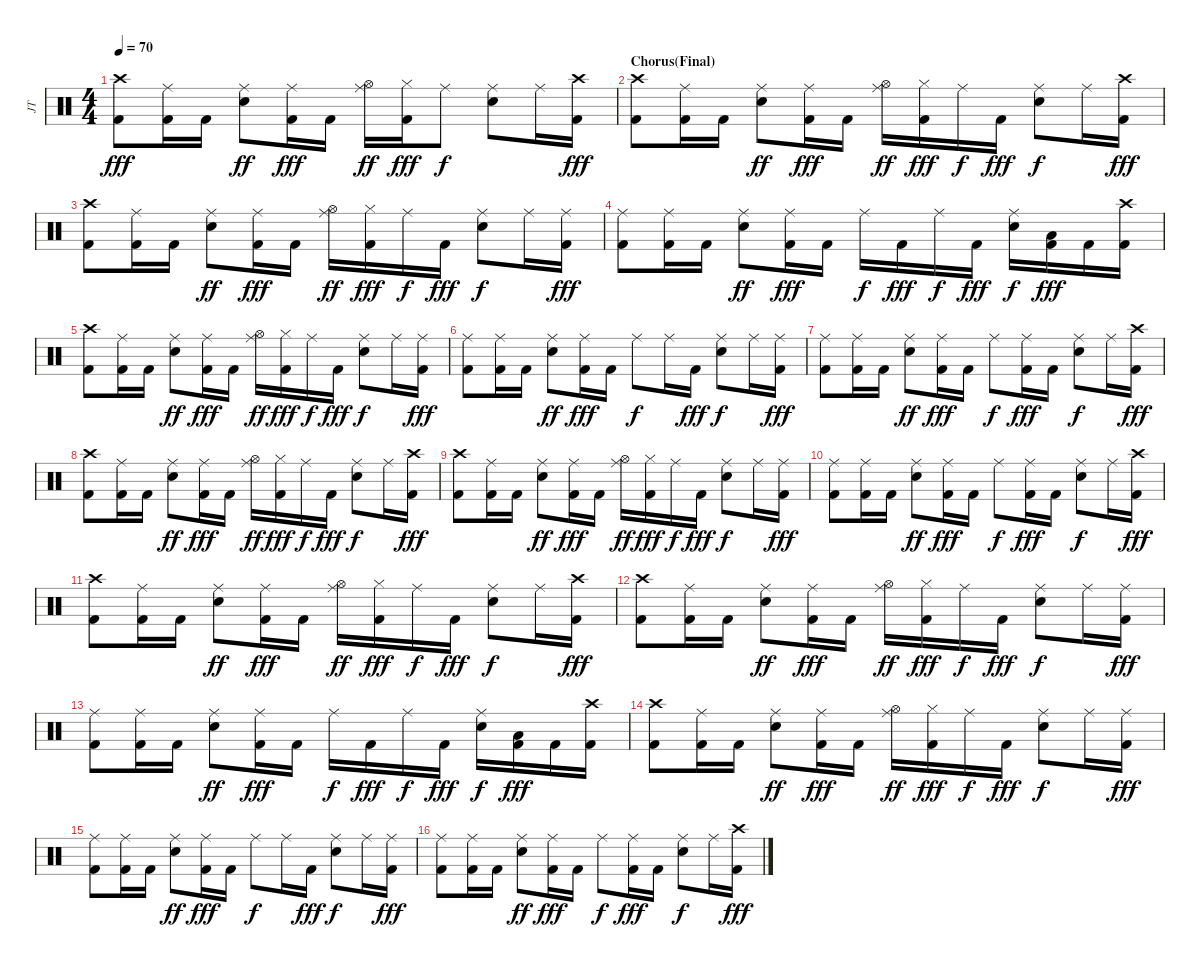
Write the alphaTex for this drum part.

\track ("JT" "JT") {instrument percussion}
\staff {score}
\articulation defaults
\ts (4 4)
\tempo 70
\clef neutral
\ks c
("Crash high (hit)" "Kick (hit) 2").8{dy fff} ("Ride (middle)" "Kick (hit) 2").16 "Kick (hit) 2".16 ("Ride (middle)" "Electric Snare (hit)").8{dy ff} ("Ride (middle)" "Kick (hit) 2").16{dy fff} "Kick (hit) 2".16 ("Ride (middle)" "Hi-Hat (open)").16{dy ff} ("Hi-Hat (closed)" "Kick (hit) 2").16{dy fff} "Ride (middle)".8{dy f} ("Ride (middle)" "Electric Snare (hit)").8 "Ride (middle)".16 ("Crash high (hit)" "Kick (hit) 2").16{dy fff} |
\section ("" "Chorus(Final)")
("Crash high (hit)" "Kick (hit) 2").8 ("Ride (middle)" "Kick (hit) 2").16 "Kick (hit) 2".16 ("Ride (middle)" "Electric Snare (hit)").8{dy ff} ("Ride (middle)" "Kick (hit) 2").16{dy fff} "Kick (hit) 2".16 ("Ride (middle)" "Hi-Hat (open)").16{dy ff} ("Hi-Hat (closed)" "Kick (hit) 2").16{dy fff} "Ride (middle)".16{dy f} "Kick (hit) 2".16{dy fff} ("Ride (middle)" "Electric Snare (hit)").8{dy f} "Ride (middle)".16 ("Crash high (hit)" "Kick (hit) 2").16{dy fff} |
("Crash high (hit)" "Kick (hit) 2").8 ("Ride (middle)" "Kick (hit) 2").16 "Kick (hit) 2".16 ("Ride (middle)" "Electric Snare (hit)").8{dy ff} ("Ride (middle)" "Kick (hit) 2").16{dy fff} "Kick (hit) 2".16 ("Ride (middle)" "Hi-Hat (open)").16{dy ff} ("Hi-Hat (closed)" "Kick (hit) 2").16{dy fff} "Ride (middle)".16{dy f} "Kick (hit) 2".16{dy fff} ("Ride (middle)" "Electric Snare (hit)").8{dy f} "Ride (middle)".16 ("Ride (middle)" "Kick (hit) 2").16{dy fff} |
("Ride (middle)" "Kick (hit) 2").8 ("Ride (middle)" "Kick (hit) 2").16 "Kick (hit) 2".16 ("Ride (middle)" "Electric Snare (hit)").8{dy ff} ("Ride (middle)" "Kick (hit) 2").16{dy fff} "Kick (hit) 2".16 "Ride (middle)".16{dy f} "Kick (hit) 2".16{dy fff} "Ride (middle)".16{dy f} "Kick (hit) 2".16{dy fff} ("Ride (middle)" "Electric Snare (hit)").16{dy f} ("Low Tom (hit)" "Kick (hit) 2").16{dy fff} "Kick (hit) 2".16 ("Crash high (hit)" "Kick (hit) 2").16 |
("Crash high (hit)" "Kick (hit) 2").8 ("Ride (middle)" "Kick (hit) 2").16 "Kick (hit) 2".16 ("Ride (middle)" "Electric Snare (hit)").8{dy ff} ("Ride (middle)" "Kick (hit) 2").16{dy fff} "Kick (hit) 2".16 ("Ride (middle)" "Hi-Hat (open)").16{dy ff} ("Hi-Hat (closed)" "Kick (hit) 2").16{dy fff} "Ride (middle)".16{dy f} "Kick (hit) 2".16{dy fff} ("Ride (middle)" "Electric Snare (hit)").8{dy f} "Ride (middle)".16 ("Ride (middle)" "Kick (hit) 2").16{dy fff} |
("Ride (middle)" "Kick (hit) 2").8 ("Ride (middle)" "Kick (hit) 2").16 "Kick (hit) 2".16 ("Ride (middle)" "Electric Snare (hit)").8{dy ff} ("Ride (middle)" "Kick (hit) 2").16{dy fff} "Kick (hit) 2".16 "Ride (middle)".8{dy f} "Ride (middle)".16 "Kick (hit) 2".16{dy fff} ("Ride (middle)" "Electric Snare (hit)").8{dy f} "Ride (middle)".16 ("Ride (middle)" "Kick (hit) 2").16{dy fff} |
("Ride (middle)" "Kick (hit) 2").8 ("Ride (middle)" "Kick (hit) 2").16 "Kick (hit) 2".16 ("Ride (middle)" "Electric Snare (hit)").8{dy ff} ("Ride (middle)" "Kick (hit) 2").16{dy fff} "Kick (hit) 2".16 "Ride (middle)".8{dy f} ("Ride (middle)" "Kick (hit) 2").16{dy fff} "Kick (hit) 2".16 ("Ride (middle)" "Electric Snare (hit)").8{dy f} "Ride (middle)".16 ("Crash high (hit)" "Kick (hit) 2").16{dy fff} |
("Crash high (hit)" "Kick (hit) 2").8 ("Ride (middle)" "Kick (hit) 2").16 "Kick (hit) 2".16 ("Ride (middle)" "Electric Snare (hit)").8{dy ff} ("Ride (middle)" "Kick (hit) 2").16{dy fff} "Kick (hit) 2".16 ("Ride (middle)" "Hi-Hat (open)").16{dy ff} ("Hi-Hat (closed)" "Kick (hit) 2").16{dy fff} "Ride (middle)".16{dy f} "Kick (hit) 2".16{dy fff} ("Ride (middle)" "Electric Snare (hit)").8{dy f} "Ride (middle)".16 ("Crash high (hit)" "Kick (hit) 2").16{dy fff} |
("Crash high (hit)" "Kick (hit) 2").8 ("Ride (middle)" "Kick (hit) 2").16 "Kick (hit) 2".16 ("Ride (middle)" "Electric Snare (hit)").8{dy ff} ("Ride (middle)" "Kick (hit) 2").16{dy fff} "Kick (hit) 2".16 ("Ride (middle)" "Hi-Hat (open)").16{dy ff} ("Hi-Hat (closed)" "Kick (hit) 2").16{dy fff} "Ride (middle)".16{dy f} "Kick (hit) 2".16{dy fff} ("Ride (middle)" "Electric Snare (hit)").8{dy f} "Ride (middle)".16 ("Ride (middle)" "Kick (hit) 2").16{dy fff} |
("Ride (middle)" "Kick (hit) 2").8 ("Ride (middle)" "Kick (hit) 2").16 "Kick (hit) 2".16 ("Ride (middle)" "Electric Snare (hit)").8{dy ff} ("Ride (middle)" "Kick (hit) 2").16{dy fff} "Kick (hit) 2".16 "Ride (middle)".8{dy f} ("Ride (middle)" "Kick (hit) 2").16{dy fff} "Kick (hit) 2".16 ("Ride (middle)" "Electric Snare (hit)").8{dy f} "Ride (middle)".16 ("Crash high (hit)" "Kick (hit) 2").16{dy fff} |
("Crash high (hit)" "Kick (hit) 2").8 ("Ride (middle)" "Kick (hit) 2").16 "Kick (hit) 2".16 ("Ride (middle)" "Electric Snare (hit)").8{dy ff} ("Ride (middle)" "Kick (hit) 2").16{dy fff} "Kick (hit) 2".16 ("Ride (middle)" "Hi-Hat (open)").16{dy ff} ("Hi-Hat (closed)" "Kick (hit) 2").16{dy fff} "Ride (middle)".16{dy f} "Kick (hit) 2".16{dy fff} ("Ride (middle)" "Electric Snare (hit)").8{dy f} "Ride (middle)".16 ("Crash high (hit)" "Kick (hit) 2").16{dy fff} |
("Crash high (hit)" "Kick (hit) 2").8 ("Ride (middle)" "Kick (hit) 2").16 "Kick (hit) 2".16 ("Ride (middle)" "Electric Snare (hit)").8{dy ff} ("Ride (middle)" "Kick (hit) 2").16{dy fff} "Kick (hit) 2".16 ("Ride (middle)" "Hi-Hat (open)").16{dy ff} ("Hi-Hat (closed)" "Kick (hit) 2").16{dy fff} "Ride (middle)".16{dy f} "Kick (hit) 2".16{dy fff} ("Ride (middle)" "Electric Snare (hit)").8{dy f} "Ride (middle)".16 ("Ride (middle)" "Kick (hit) 2").16{dy fff} |
("Ride (middle)" "Kick (hit) 2").8 ("Ride (middle)" "Kick (hit) 2").16 "Kick (hit) 2".16 ("Ride (middle)" "Electric Snare (hit)").8{dy ff} ("Ride (middle)" "Kick (hit) 2").16{dy fff} "Kick (hit) 2".16 "Ride (middle)".16{dy f} "Kick (hit) 2".16{dy fff} "Ride (middle)".16{dy f} "Kick (hit) 2".16{dy fff} ("Ride (middle)" "Electric Snare (hit)").16{dy f} ("Low Tom (hit)" "Kick (hit) 2").16{dy fff} "Kick (hit) 2".16 ("Crash high (hit)" "Kick (hit) 2").16 |
("Crash high (hit)" "Kick (hit) 2").8 ("Ride (middle)" "Kick (hit) 2").16 "Kick (hit) 2".16 ("Ride (middle)" "Electric Snare (hit)").8{dy ff} ("Ride (middle)" "Kick (hit) 2").16{dy fff} "Kick (hit) 2".16 ("Ride (middle)" "Hi-Hat (open)").16{dy ff} ("Hi-Hat (closed)" "Kick (hit) 2").16{dy fff} "Ride (middle)".16{dy f} "Kick (hit) 2".16{dy fff} ("Ride (middle)" "Electric Snare (hit)").8{dy f} "Ride (middle)".16 ("Ride (middle)" "Kick (hit) 2").16{dy fff} |
("Ride (middle)" "Kick (hit) 2").8 ("Ride (middle)" "Kick (hit) 2").16 "Kick (hit) 2".16 ("Ride (middle)" "Electric Snare (hit)").8{dy ff} ("Ride (middle)" "Kick (hit) 2").16{dy fff} "Kick (hit) 2".16 "Ride (middle)".8{dy f} "Ride (middle)".16 "Kick (hit) 2".16{dy fff} ("Ride (middle)" "Electric Snare (hit)").8{dy f} "Ride (middle)".16 ("Ride (middle)" "Kick (hit) 2").16{dy fff} |
("Ride (middle)" "Kick (hit) 2").8 ("Ride (middle)" "Kick (hit) 2").16 "Kick (hit) 2".16 ("Ride (middle)" "Electric Snare (hit)").8{dy ff} ("Ride (middle)" "Kick (hit) 2").16{dy fff} "Kick (hit) 2".16 "Ride (middle)".8{dy f} ("Ride (middle)" "Kick (hit) 2").16{dy fff} "Kick (hit) 2".16 ("Ride (middle)" "Electric Snare (hit)").8{dy f} "Ride (middle)".16 ("Crash high (hit)" "Kick (hit) 2").16{dy fff}
